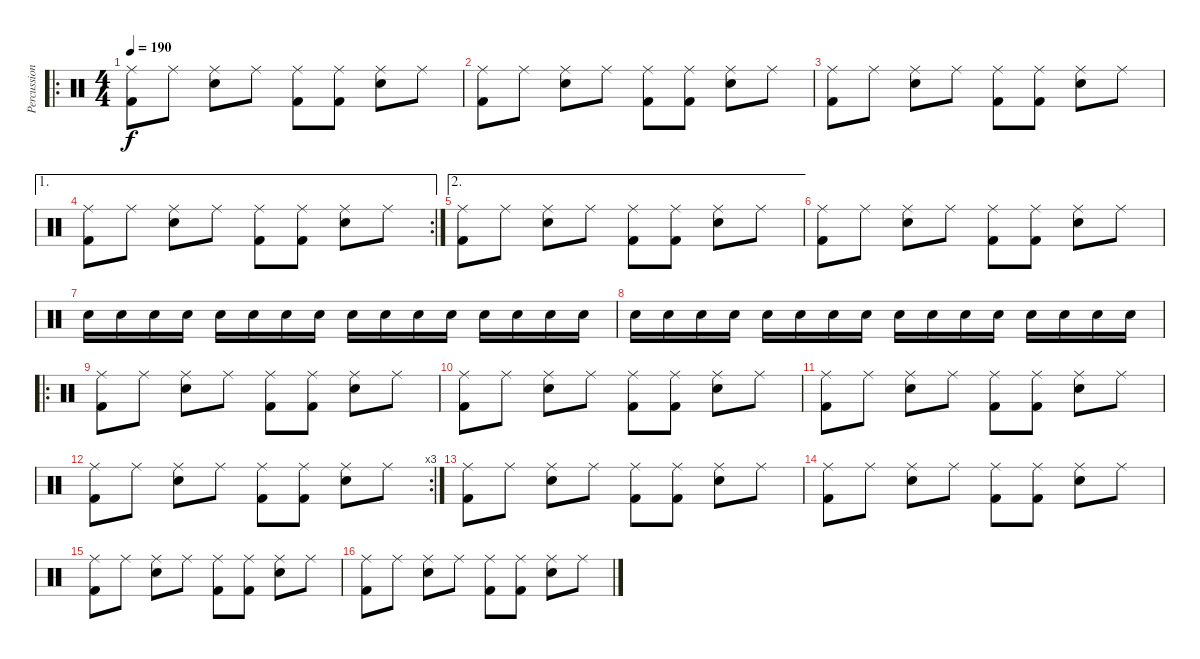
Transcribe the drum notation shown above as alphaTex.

\track ("Percussion" "Percussion") {instrument percussion}
\staff {score}
\articulation defaults
\ro
\ts (4 4)
\tempo 190
\clef neutral
\ks c
("Ride (middle)" "Kick (hit) 2").8{dy f} "Ride (middle)".8 ("Ride (middle)" "Electric Snare (hit)").8 "Ride (middle)".8 ("Ride (middle)" "Kick (hit) 2").8 ("Ride (middle)" "Kick (hit) 2").8 ("Ride (middle)" "Electric Snare (hit)").8 "Ride (middle)".8 |
("Ride (middle)" "Kick (hit) 2").8 "Ride (middle)".8 ("Ride (middle)" "Electric Snare (hit)").8 "Ride (middle)".8 ("Ride (middle)" "Kick (hit) 2").8 ("Ride (middle)" "Kick (hit) 2").8 ("Ride (middle)" "Electric Snare (hit)").8 "Ride (middle)".8 |
("Ride (middle)" "Kick (hit) 2").8 "Ride (middle)".8 ("Ride (middle)" "Electric Snare (hit)").8 "Ride (middle)".8 ("Ride (middle)" "Kick (hit) 2").8 ("Ride (middle)" "Kick (hit) 2").8 ("Ride (middle)" "Electric Snare (hit)").8 "Ride (middle)".8 |
\ae 1
\rc 2
("Ride (middle)" "Kick (hit) 2").8 "Ride (middle)".8 ("Ride (middle)" "Electric Snare (hit)").8 "Ride (middle)".8 ("Ride (middle)" "Kick (hit) 2").8 ("Ride (middle)" "Kick (hit) 2").8 ("Ride (middle)" "Electric Snare (hit)").8 "Ride (middle)".8 |
\ae 2
("Ride (middle)" "Kick (hit) 2").8 "Ride (middle)".8 ("Ride (middle)" "Electric Snare (hit)").8 "Ride (middle)".8 ("Ride (middle)" "Kick (hit) 2").8 ("Ride (middle)" "Kick (hit) 2").8 ("Ride (middle)" "Electric Snare (hit)").8 "Ride (middle)".8 |
("Ride (middle)" "Kick (hit) 2").8 "Ride (middle)".8 ("Ride (middle)" "Electric Snare (hit)").8 "Ride (middle)".8 ("Ride (middle)" "Kick (hit) 2").8 ("Ride (middle)" "Kick (hit) 2").8 ("Ride (middle)" "Electric Snare (hit)").8 "Ride (middle)".8 |
"Electric Snare (hit)".16 "Electric Snare (hit)".16 "Electric Snare (hit)".16 "Electric Snare (hit)".16 "Electric Snare (hit)".16 "Electric Snare (hit)".16 "Electric Snare (hit)".16 "Electric Snare (hit)".16 "Electric Snare (hit)".16 "Electric Snare (hit)".16 "Electric Snare (hit)".16 "Electric Snare (hit)".16 "Electric Snare (hit)".16 "Electric Snare (hit)".16 "Electric Snare (hit)".16 "Electric Snare (hit)".16 |
"Electric Snare (hit)".16 "Electric Snare (hit)".16 "Electric Snare (hit)".16 "Electric Snare (hit)".16 "Electric Snare (hit)".16 "Electric Snare (hit)".16 "Electric Snare (hit)".16 "Electric Snare (hit)".16 "Electric Snare (hit)".16 "Electric Snare (hit)".16 "Electric Snare (hit)".16 "Electric Snare (hit)".16 "Electric Snare (hit)".16 "Electric Snare (hit)".16 "Electric Snare (hit)".16 "Electric Snare (hit)".16 |
\ro
("Ride (middle)" "Kick (hit) 2").8 "Ride (middle)".8 ("Ride (middle)" "Electric Snare (hit)").8 "Ride (middle)".8 ("Ride (middle)" "Kick (hit) 2").8 ("Ride (middle)" "Kick (hit) 2").8 ("Ride (middle)" "Electric Snare (hit)").8 "Ride (middle)".8 |
("Ride (middle)" "Kick (hit) 2").8 "Ride (middle)".8 ("Ride (middle)" "Electric Snare (hit)").8 "Ride (middle)".8 ("Ride (middle)" "Kick (hit) 2").8 ("Ride (middle)" "Kick (hit) 2").8 ("Ride (middle)" "Electric Snare (hit)").8 "Ride (middle)".8 |
("Ride (middle)" "Kick (hit) 2").8 "Ride (middle)".8 ("Ride (middle)" "Electric Snare (hit)").8 "Ride (middle)".8 ("Ride (middle)" "Kick (hit) 2").8 ("Ride (middle)" "Kick (hit) 2").8 ("Ride (middle)" "Electric Snare (hit)").8 "Ride (middle)".8 |
\rc 3
("Ride (middle)" "Kick (hit) 2").8 "Ride (middle)".8 ("Ride (middle)" "Electric Snare (hit)").8 "Ride (middle)".8 ("Ride (middle)" "Kick (hit) 2").8 ("Ride (middle)" "Kick (hit) 2").8 ("Ride (middle)" "Electric Snare (hit)").8 "Ride (middle)".8 |
("Ride (middle)" "Kick (hit) 2").8 "Ride (middle)".8 ("Ride (middle)" "Electric Snare (hit)").8 "Ride (middle)".8 ("Ride (middle)" "Kick (hit) 2").8 ("Ride (middle)" "Kick (hit) 2").8 ("Ride (middle)" "Electric Snare (hit)").8 "Ride (middle)".8 |
("Ride (middle)" "Kick (hit) 2").8 "Ride (middle)".8 ("Ride (middle)" "Electric Snare (hit)").8 "Ride (middle)".8 ("Ride (middle)" "Kick (hit) 2").8 ("Ride (middle)" "Kick (hit) 2").8 ("Ride (middle)" "Electric Snare (hit)").8 "Ride (middle)".8 |
("Ride (middle)" "Kick (hit) 2").8 "Ride (middle)".8 ("Ride (middle)" "Electric Snare (hit)").8 "Ride (middle)".8 ("Ride (middle)" "Kick (hit) 2").8 ("Ride (middle)" "Kick (hit) 2").8 ("Ride (middle)" "Electric Snare (hit)").8 "Ride (middle)".8 |
("Ride (middle)" "Kick (hit) 2").8 "Ride (middle)".8 ("Ride (middle)" "Electric Snare (hit)").8 "Ride (middle)".8 ("Ride (middle)" "Kick (hit) 2").8 ("Ride (middle)" "Kick (hit) 2").8 ("Ride (middle)" "Electric Snare (hit)").8 "Ride (middle)".8
